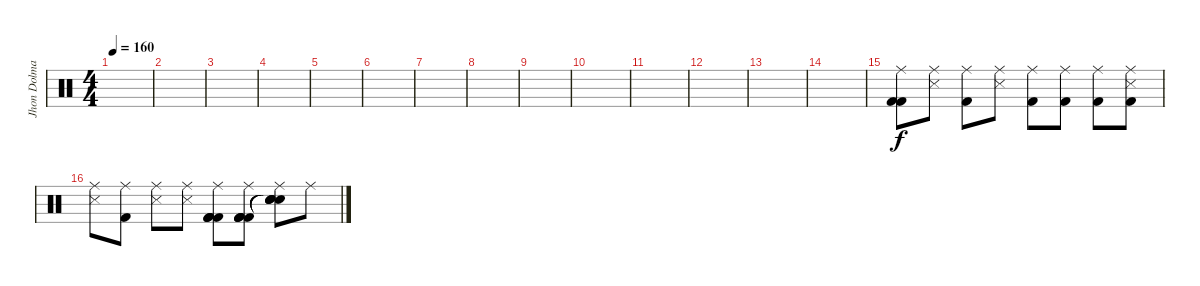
\track ("Jhon Dolmayan(Drum)" "Jhon Dolma") {instrument percussion}
\staff {score}
\articulation defaults
\ts (4 4)
\tempo 160
\clef neutral
\ks c
|
|
|
|
|
|
|
|
|
|
|
|
|
|
("Ride (middle)" "Kick (hit) 2" "Kick (hit) 2").8 ("Ride (middle)" "Snare (side stick) 3").8 ("Ride (middle)" "Kick (hit) 2").8 ("Ride (middle)" "Snare (side stick) 3").8 ("Ride (middle)" "Kick (hit) 2").8 ("Ride (middle)" "Kick (hit) 2").8 ("Ride (middle)" "Kick (hit) 2").8 ("Ride (middle)" "Snare (side stick) 3" "Kick (hit) 2").8 |
("Ride (middle)" "Snare (side stick) 3").8 ("Ride (middle)" "Kick (hit) 2").8 ("Ride (middle)" "Snare (side stick) 3").8 ("Ride (middle)" "Snare (side stick) 3").8 ("Ride (middle)" "Kick (hit) 2" "Kick (hit) 2" "Kick (hit) 2" "Kick (hit) 2").8 ("Ride (middle)" "Kick (hit) 2" "Kick (hit) 2" "Kick (hit) 2" "Kick (hit) 2").8 ("Ride (middle)" "Snare (hit)"{t} "Snare (hit)"{t} "Snare (hit)"{t} "Snare (hit)"{t}).8 "Ride (middle)".8
